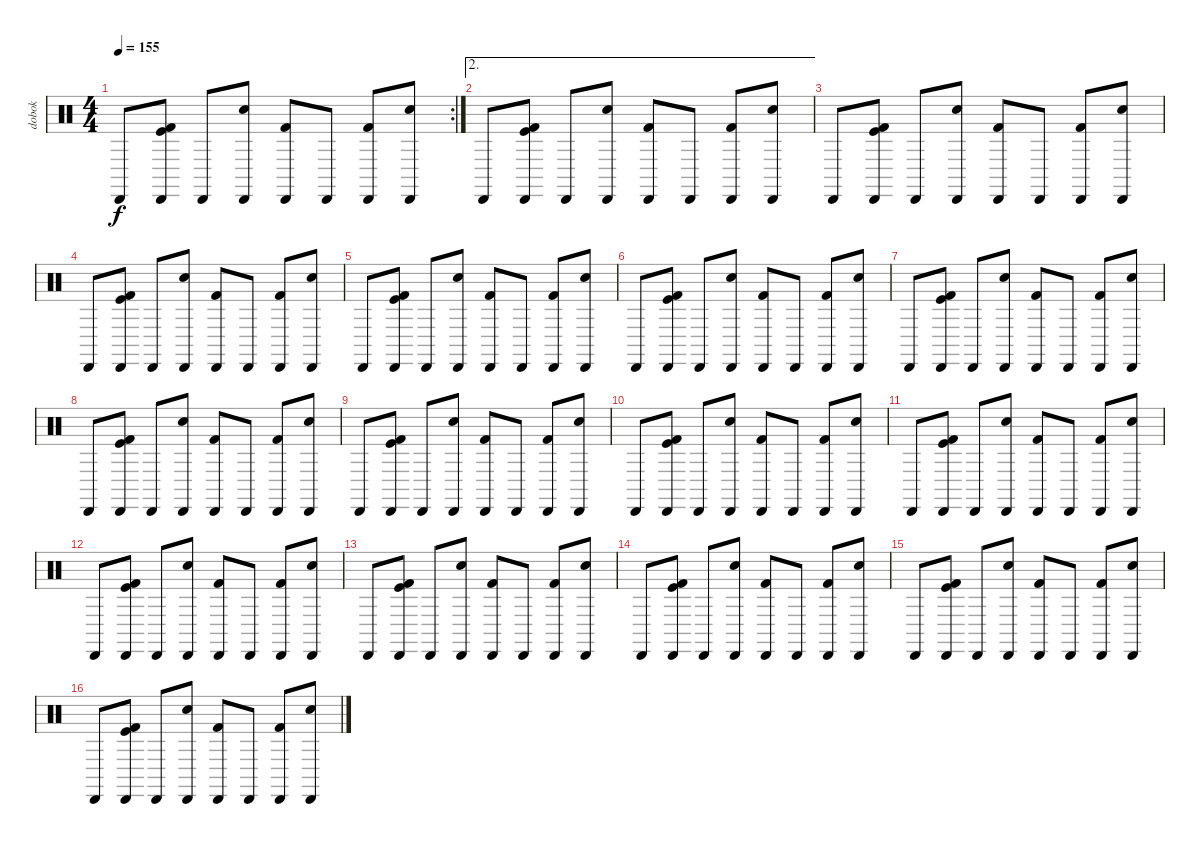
\track ("dobok" "dobok") {instrument percussion}
\staff {score}
\articulation defaults
\rc 2
\ts (4 4)
\tempo 155
\clef neutral
\ks c "Cabasa (hit)".8{dy f}
("Cabasa (hit)" "Kick (hit) 2" "Kick (hit)").8 "Cabasa (hit)".8 ("Cabasa (hit)" "Electric Snare (hit)").8 ("Cabasa (hit)" "Kick (hit) 2").8 "Cabasa (hit)".8 ("Cabasa (hit)" "Kick (hit) 2").8 ("Cabasa (hit)" "Electric Snare (hit)").8 |
\ae 2 "Cabasa (hit)".8
("Cabasa (hit)" "Kick (hit) 2" "Kick (hit)").8 "Cabasa (hit)".8 ("Cabasa (hit)" "Electric Snare (hit)").8 ("Cabasa (hit)" "Kick (hit) 2").8 "Cabasa (hit)".8 ("Cabasa (hit)" "Kick (hit) 2").8 ("Cabasa (hit)" "Electric Snare (hit)").8 |
"Cabasa (hit)".8 ("Cabasa (hit)" "Kick (hit) 2" "Kick (hit)").8 "Cabasa (hit)".8 ("Cabasa (hit)" "Electric Snare (hit)").8 ("Cabasa (hit)" "Kick (hit) 2").8 "Cabasa (hit)".8 ("Cabasa (hit)" "Kick (hit) 2").8 ("Cabasa (hit)" "Electric Snare (hit)").8 |
"Cabasa (hit)".8 ("Cabasa (hit)" "Kick (hit) 2" "Kick (hit)").8 "Cabasa (hit)".8 ("Cabasa (hit)" "Electric Snare (hit)").8 ("Cabasa (hit)" "Kick (hit) 2").8 "Cabasa (hit)".8 ("Cabasa (hit)" "Kick (hit) 2").8 ("Cabasa (hit)" "Electric Snare (hit)").8 |
"Cabasa (hit)".8 ("Cabasa (hit)" "Kick (hit) 2" "Kick (hit)").8 "Cabasa (hit)".8 ("Cabasa (hit)" "Electric Snare (hit)").8 ("Cabasa (hit)" "Kick (hit) 2").8 "Cabasa (hit)".8 ("Cabasa (hit)" "Kick (hit) 2").8 ("Cabasa (hit)" "Electric Snare (hit)").8 |
"Cabasa (hit)".8 ("Cabasa (hit)" "Kick (hit) 2" "Kick (hit)").8 "Cabasa (hit)".8 ("Cabasa (hit)" "Electric Snare (hit)").8 ("Cabasa (hit)" "Kick (hit) 2").8 "Cabasa (hit)".8 ("Cabasa (hit)" "Kick (hit) 2").8 ("Cabasa (hit)" "Electric Snare (hit)").8 |
"Cabasa (hit)".8 ("Cabasa (hit)" "Kick (hit) 2" "Kick (hit)").8 "Cabasa (hit)".8 ("Cabasa (hit)" "Electric Snare (hit)").8 ("Cabasa (hit)" "Kick (hit) 2").8 "Cabasa (hit)".8 ("Cabasa (hit)" "Kick (hit) 2").8 ("Cabasa (hit)" "Electric Snare (hit)").8 |
"Cabasa (hit)".8 ("Cabasa (hit)" "Kick (hit) 2" "Kick (hit)").8 "Cabasa (hit)".8 ("Cabasa (hit)" "Electric Snare (hit)").8 ("Cabasa (hit)" "Kick (hit) 2").8 "Cabasa (hit)".8 ("Cabasa (hit)" "Kick (hit) 2").8 ("Cabasa (hit)" "Electric Snare (hit)").8 |
"Cabasa (hit)".8 ("Cabasa (hit)" "Kick (hit) 2" "Kick (hit)").8 "Cabasa (hit)".8 ("Cabasa (hit)" "Electric Snare (hit)").8 ("Cabasa (hit)" "Kick (hit) 2").8 "Cabasa (hit)".8 ("Cabasa (hit)" "Kick (hit) 2").8 ("Cabasa (hit)" "Electric Snare (hit)").8 |
"Cabasa (hit)".8 ("Cabasa (hit)" "Kick (hit) 2" "Kick (hit)").8 "Cabasa (hit)".8 ("Cabasa (hit)" "Electric Snare (hit)").8 ("Cabasa (hit)" "Kick (hit) 2").8 "Cabasa (hit)".8 ("Cabasa (hit)" "Kick (hit) 2").8 ("Cabasa (hit)" "Electric Snare (hit)").8 |
"Cabasa (hit)".8 ("Cabasa (hit)" "Kick (hit) 2" "Kick (hit)").8 "Cabasa (hit)".8 ("Cabasa (hit)" "Electric Snare (hit)").8 ("Cabasa (hit)" "Kick (hit) 2").8 "Cabasa (hit)".8 ("Cabasa (hit)" "Kick (hit) 2").8 ("Cabasa (hit)" "Electric Snare (hit)").8 |
"Cabasa (hit)".8 ("Cabasa (hit)" "Kick (hit) 2" "Kick (hit)").8 "Cabasa (hit)".8 ("Cabasa (hit)" "Electric Snare (hit)").8 ("Cabasa (hit)" "Kick (hit) 2").8 "Cabasa (hit)".8 ("Cabasa (hit)" "Kick (hit) 2").8 ("Cabasa (hit)" "Electric Snare (hit)").8 |
"Cabasa (hit)".8 ("Cabasa (hit)" "Kick (hit) 2" "Kick (hit)").8 "Cabasa (hit)".8 ("Cabasa (hit)" "Electric Snare (hit)").8 ("Cabasa (hit)" "Kick (hit) 2").8 "Cabasa (hit)".8 ("Cabasa (hit)" "Kick (hit) 2").8 ("Cabasa (hit)" "Electric Snare (hit)").8 |
"Cabasa (hit)".8 ("Cabasa (hit)" "Kick (hit) 2" "Kick (hit)").8 "Cabasa (hit)".8 ("Cabasa (hit)" "Electric Snare (hit)").8 ("Cabasa (hit)" "Kick (hit) 2").8 "Cabasa (hit)".8 ("Cabasa (hit)" "Kick (hit) 2").8 ("Cabasa (hit)" "Electric Snare (hit)").8 |
"Cabasa (hit)".8 ("Cabasa (hit)" "Kick (hit) 2" "Kick (hit)").8 "Cabasa (hit)".8 ("Cabasa (hit)" "Electric Snare (hit)").8 ("Cabasa (hit)" "Kick (hit) 2").8 "Cabasa (hit)".8 ("Cabasa (hit)" "Kick (hit) 2").8 ("Cabasa (hit)" "Electric Snare (hit)").8 |
"Cabasa (hit)".8 ("Cabasa (hit)" "Kick (hit) 2" "Kick (hit)").8 "Cabasa (hit)".8 ("Cabasa (hit)" "Electric Snare (hit)").8 ("Cabasa (hit)" "Kick (hit) 2").8 "Cabasa (hit)".8 ("Cabasa (hit)" "Kick (hit) 2").8 ("Cabasa (hit)" "Electric Snare (hit)").8
